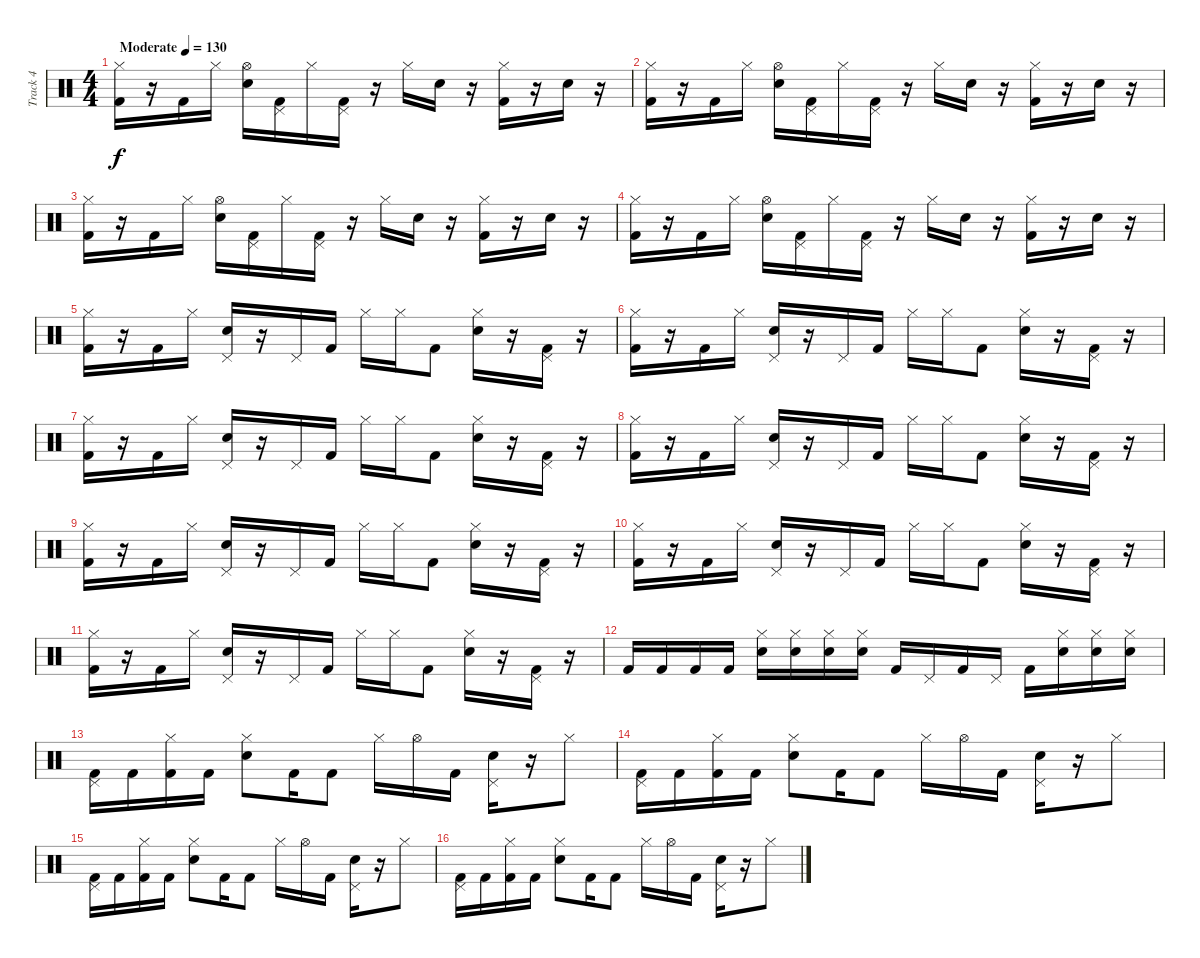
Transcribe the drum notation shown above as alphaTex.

\track ("Track 4" "Track 4") {instrument percussion}
\staff {score}
\articulation defaults
\ts (4 4)
\tempo (130 "Moderate")
\clef neutral
\ks c
("Hi-Hat (closed)" "Kick (hit) 2").16{dy f} r.16 "Kick (hit) 2".16 "Hi-Hat (closed)".16 ("Hi-Hat (open)" "Electric Snare (hit)").16 ("Pedal Hi-Hat (hit)" "Kick (hit) 2").16 "Hi-Hat (closed)".16 ("Pedal Hi-Hat (hit)" "Kick (hit) 2").16 r.16 "Hi-Hat (closed)".16 "Electric Snare (hit)".16 r.16 ("Hi-Hat (closed)" "Kick (hit) 2").16 r.16 "Electric Snare (hit)".16 r.16 |
("Hi-Hat (closed)" "Kick (hit) 2").16 r.16 "Kick (hit) 2".16 "Hi-Hat (closed)".16 ("Hi-Hat (open)" "Electric Snare (hit)").16 ("Pedal Hi-Hat (hit)" "Kick (hit) 2").16 "Hi-Hat (closed)".16 ("Pedal Hi-Hat (hit)" "Kick (hit) 2").16 r.16 "Hi-Hat (closed)".16 "Electric Snare (hit)".16 r.16 ("Hi-Hat (closed)" "Kick (hit) 2").16 r.16 "Electric Snare (hit)".16 r.16 |
("Hi-Hat (closed)" "Kick (hit) 2").16 r.16 "Kick (hit) 2".16 "Hi-Hat (closed)".16 ("Hi-Hat (open)" "Electric Snare (hit)").16 ("Pedal Hi-Hat (hit)" "Kick (hit) 2").16 "Hi-Hat (closed)".16 ("Pedal Hi-Hat (hit)" "Kick (hit) 2").16 r.16 "Hi-Hat (closed)".16 "Electric Snare (hit)".16 r.16 ("Hi-Hat (closed)" "Kick (hit) 2").16 r.16 "Electric Snare (hit)".16 r.16 |
("Hi-Hat (closed)" "Kick (hit) 2").16 r.16 "Kick (hit) 2".16 "Hi-Hat (closed)".16 ("Hi-Hat (open)" "Electric Snare (hit)").16 ("Pedal Hi-Hat (hit)" "Kick (hit) 2").16 "Hi-Hat (closed)".16 ("Pedal Hi-Hat (hit)" "Kick (hit) 2").16 r.16 "Hi-Hat (closed)".16 "Electric Snare (hit)".16 r.16 ("Hi-Hat (closed)" "Kick (hit) 2").16 r.16 "Electric Snare (hit)".16 r.16 |
("Hi-Hat (closed)" "Kick (hit) 2").16 r.16 "Kick (hit) 2".16 "Hi-Hat (closed)".16 ("Pedal Hi-Hat (hit)" "Electric Snare (hit)").16 r.16 "Pedal Hi-Hat (hit)".16 "Kick (hit) 2".16 "Hi-Hat (closed)".16 "Hi-Hat (closed)".16 "Kick (hit) 2".8 ("Hi-Hat (closed)" "Electric Snare (hit)").16 r.16 ("Pedal Hi-Hat (hit)" "Kick (hit) 2").16 r.16 |
("Hi-Hat (closed)" "Kick (hit) 2").16 r.16 "Kick (hit) 2".16 "Hi-Hat (closed)".16 ("Pedal Hi-Hat (hit)" "Electric Snare (hit)").16 r.16 "Pedal Hi-Hat (hit)".16 "Kick (hit) 2".16 "Hi-Hat (closed)".16 "Hi-Hat (closed)".16 "Kick (hit) 2".8 ("Hi-Hat (closed)" "Electric Snare (hit)").16 r.16 ("Pedal Hi-Hat (hit)" "Kick (hit) 2").16 r.16 |
("Hi-Hat (closed)" "Kick (hit) 2").16 r.16 "Kick (hit) 2".16 "Hi-Hat (closed)".16 ("Pedal Hi-Hat (hit)" "Electric Snare (hit)").16 r.16 "Pedal Hi-Hat (hit)".16 "Kick (hit) 2".16 "Hi-Hat (closed)".16 "Hi-Hat (closed)".16 "Kick (hit) 2".8 ("Hi-Hat (closed)" "Electric Snare (hit)").16 r.16 ("Pedal Hi-Hat (hit)" "Kick (hit) 2").16 r.16 |
("Hi-Hat (closed)" "Kick (hit) 2").16 r.16 "Kick (hit) 2".16 "Hi-Hat (closed)".16 ("Pedal Hi-Hat (hit)" "Electric Snare (hit)").16 r.16 "Pedal Hi-Hat (hit)".16 "Kick (hit) 2".16 "Hi-Hat (closed)".16 "Hi-Hat (closed)".16 "Kick (hit) 2".8 ("Hi-Hat (closed)" "Electric Snare (hit)").16 r.16 ("Pedal Hi-Hat (hit)" "Kick (hit) 2").16 r.16 |
("Hi-Hat (closed)" "Kick (hit) 2").16 r.16 "Kick (hit) 2".16 "Hi-Hat (closed)".16 ("Pedal Hi-Hat (hit)" "Electric Snare (hit)").16 r.16 "Pedal Hi-Hat (hit)".16 "Kick (hit) 2".16 "Hi-Hat (closed)".16 "Hi-Hat (closed)".16 "Kick (hit) 2".8 ("Hi-Hat (closed)" "Electric Snare (hit)").16 r.16 ("Pedal Hi-Hat (hit)" "Kick (hit) 2").16 r.16 |
("Hi-Hat (closed)" "Kick (hit) 2").16 r.16 "Kick (hit) 2".16 "Hi-Hat (closed)".16 ("Pedal Hi-Hat (hit)" "Electric Snare (hit)").16 r.16 "Pedal Hi-Hat (hit)".16 "Kick (hit) 2".16 "Hi-Hat (closed)".16 "Hi-Hat (closed)".16 "Kick (hit) 2".8 ("Hi-Hat (closed)" "Electric Snare (hit)").16 r.16 ("Pedal Hi-Hat (hit)" "Kick (hit) 2").16 r.16 |
("Hi-Hat (closed)" "Kick (hit) 2").16 r.16 "Kick (hit) 2".16 "Hi-Hat (closed)".16 ("Pedal Hi-Hat (hit)" "Electric Snare (hit)").16 r.16 "Pedal Hi-Hat (hit)".16 "Kick (hit) 2".16 "Hi-Hat (closed)".16 "Hi-Hat (closed)".16 "Kick (hit) 2".8 ("Hi-Hat (closed)" "Electric Snare (hit)").16 r.16 ("Pedal Hi-Hat (hit)" "Kick (hit) 2").16 r.16 |
"Kick (hit) 2".16 "Kick (hit) 2".16 "Kick (hit) 2".16 "Kick (hit) 2".16 ("Hi-Hat (closed)" "Electric Snare (hit)").16 ("Hi-Hat (closed)" "Electric Snare (hit)").16 ("Hi-Hat (closed)" "Electric Snare (hit)").16 ("Hi-Hat (closed)" "Electric Snare (hit)").16 "Kick (hit) 2".16 "Pedal Hi-Hat (hit)".16 "Kick (hit) 2".16 "Pedal Hi-Hat (hit)".16 "Kick (hit) 2".16 ("Hi-Hat (closed)" "Electric Snare (hit)").16 ("Hi-Hat (closed)" "Electric Snare (hit)").16 ("Hi-Hat (closed)" "Electric Snare (hit)").16 |
("Pedal Hi-Hat (hit)" "Kick (hit) 2").16 "Kick (hit) 2".16 ("Hi-Hat (closed)" "Kick (hit) 2").16 "Kick (hit) 2".16 ("Hi-Hat (closed)" "Electric Snare (hit)").8 "Kick (hit) 2".16 "Kick (hit) 2".8 "Hi-Hat (closed)".16 "Hi-Hat (open)".16 "Kick (hit) 2".16 ("Pedal Hi-Hat (hit)" "Electric Snare (hit)").16 r.16 "Hi-Hat (closed)".8 |
("Pedal Hi-Hat (hit)" "Kick (hit) 2").16 "Kick (hit) 2".16 ("Hi-Hat (closed)" "Kick (hit) 2").16 "Kick (hit) 2".16 ("Hi-Hat (closed)" "Electric Snare (hit)").8 "Kick (hit) 2".16 "Kick (hit) 2".8 "Hi-Hat (closed)".16 "Hi-Hat (open)".16 "Kick (hit) 2".16 ("Pedal Hi-Hat (hit)" "Electric Snare (hit)").16 r.16 "Hi-Hat (closed)".8 |
("Pedal Hi-Hat (hit)" "Kick (hit) 2").16 "Kick (hit) 2".16 ("Hi-Hat (closed)" "Kick (hit) 2").16 "Kick (hit) 2".16 ("Hi-Hat (closed)" "Electric Snare (hit)").8 "Kick (hit) 2".16 "Kick (hit) 2".8 "Hi-Hat (closed)".16 "Hi-Hat (open)".16 "Kick (hit) 2".16 ("Pedal Hi-Hat (hit)" "Electric Snare (hit)").16 r.16 "Hi-Hat (closed)".8 |
("Pedal Hi-Hat (hit)" "Kick (hit) 2").16 "Kick (hit) 2".16 ("Hi-Hat (closed)" "Kick (hit) 2").16 "Kick (hit) 2".16 ("Hi-Hat (closed)" "Electric Snare (hit)").8 "Kick (hit) 2".16 "Kick (hit) 2".8 "Hi-Hat (closed)".16 "Hi-Hat (open)".16 "Kick (hit) 2".16 ("Pedal Hi-Hat (hit)" "Electric Snare (hit)").16 r.16 "Hi-Hat (closed)".8
